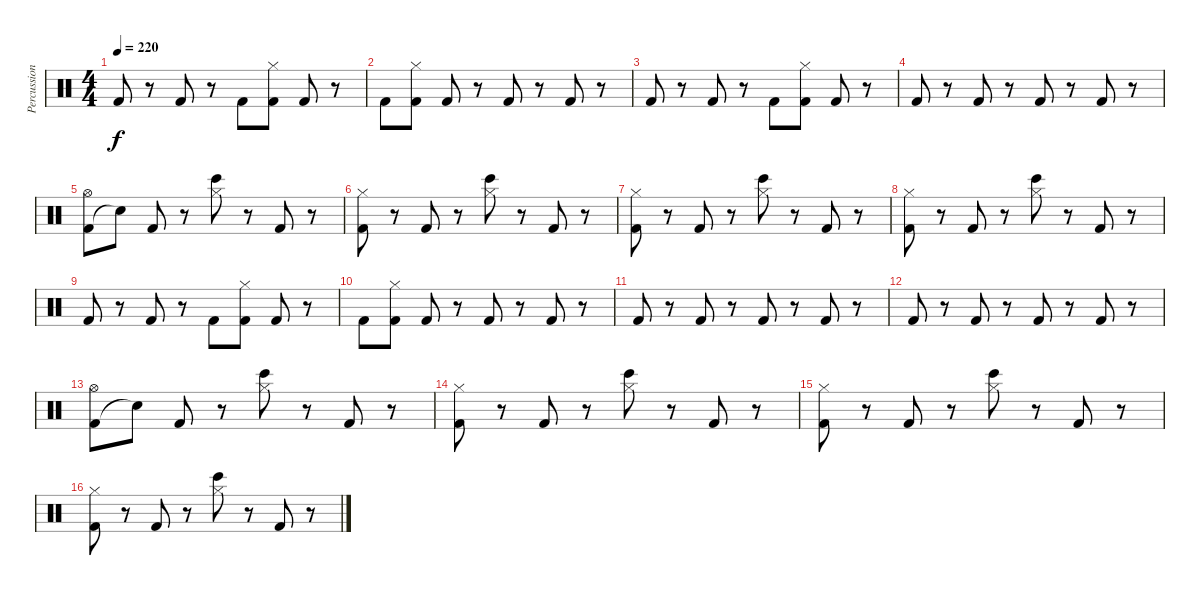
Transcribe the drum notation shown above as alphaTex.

\track ("Percussion" "Percussion") {instrument percussion}
\staff {score}
\articulation defaults
\ts (4 4)
\tempo 220
\clef neutral
\ks c "Kick (hit) 2".8{dy f}
r.8 "Kick (hit) 2".8 r.8 "Kick (hit) 2".8 ("Kick (hit) 2" "Hi-Hat (closed)").8 "Kick (hit) 2".8 r.8 |
"Kick (hit) 2".8 ("Kick (hit) 2" "Hi-Hat (closed)").8 "Kick (hit) 2".8 r.8 "Kick (hit) 2".8 r.8 "Kick (hit) 2".8 r.8 |
"Kick (hit) 2".8 r.8 "Kick (hit) 2".8 r.8 "Kick (hit) 2".8 ("Kick (hit) 2" "Hi-Hat (closed)").8 "Kick (hit) 2".8 r.8 |
"Kick (hit) 2".8 r.8 "Kick (hit) 2".8 r.8 "Kick (hit) 2".8 r.8 "Kick (hit) 2".8 r.8 |
("Kick (hit) 2" "Hi-Hat (open)").8 "Snare (hit)"{t}.8 "Kick (hit) 2".8 r.8 ("Bongo High (hit)" "Hi-Hat (closed)").8 r.8 "Kick (hit) 2".8 r.8 |
("Kick (hit) 2" "Hi-Hat (closed)").8 r.8 "Kick (hit) 2".8 r.8 ("Bongo High (hit)" "Hi-Hat (closed)").8 r.8 "Kick (hit) 2".8 r.8 |
("Kick (hit) 2" "Hi-Hat (closed)").8 r.8 "Kick (hit) 2".8 r.8 ("Bongo High (hit)" "Hi-Hat (closed)").8 r.8 "Kick (hit) 2".8 r.8 |
("Kick (hit) 2" "Hi-Hat (closed)").8 r.8 "Kick (hit) 2".8 r.8 ("Bongo High (hit)" "Hi-Hat (closed)").8 r.8 "Kick (hit) 2".8 r.8 |
"Kick (hit) 2".8 r.8 "Kick (hit) 2".8 r.8 "Kick (hit) 2".8 ("Kick (hit) 2" "Hi-Hat (closed)").8 "Kick (hit) 2".8 r.8 |
"Kick (hit) 2".8 ("Kick (hit) 2" "Hi-Hat (closed)").8 "Kick (hit) 2".8 r.8 "Kick (hit) 2".8 r.8 "Kick (hit) 2".8 r.8 |
"Kick (hit) 2".8 r.8 "Kick (hit) 2".8 r.8 "Kick (hit) 2".8 r.8 "Kick (hit) 2".8 r.8 |
"Kick (hit) 2".8 r.8 "Kick (hit) 2".8 r.8 "Kick (hit) 2".8 r.8 "Kick (hit) 2".8 r.8 |
("Kick (hit) 2" "Hi-Hat (open)").8 "Snare (hit)"{t}.8 "Kick (hit) 2".8 r.8 ("Bongo High (hit)" "Hi-Hat (closed)").8 r.8 "Kick (hit) 2".8 r.8 |
("Kick (hit) 2" "Hi-Hat (closed)").8 r.8 "Kick (hit) 2".8 r.8 ("Bongo High (hit)" "Hi-Hat (closed)").8 r.8 "Kick (hit) 2".8 r.8 |
("Kick (hit) 2" "Hi-Hat (closed)").8 r.8 "Kick (hit) 2".8 r.8 ("Bongo High (hit)" "Hi-Hat (closed)").8 r.8 "Kick (hit) 2".8 r.8 |
("Kick (hit) 2" "Hi-Hat (closed)").8 r.8 "Kick (hit) 2".8 r.8 ("Bongo High (hit)" "Hi-Hat (closed)").8 r.8 "Kick (hit) 2".8 r.8
